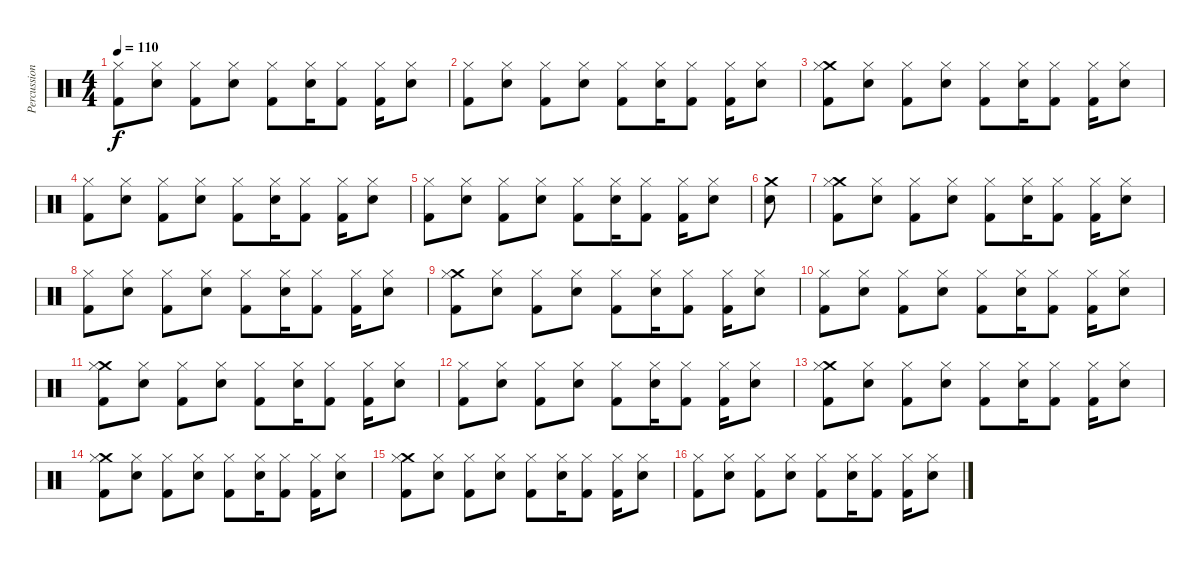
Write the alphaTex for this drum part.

\track ("Percussion" "Percussion") {instrument percussion}
\staff {score}
\articulation defaults
\ts (4 4)
\tempo 110
\clef neutral
\ks c
("Hi-Hat (closed)" "Kick (hit) 2").8{dy f} ("Hi-Hat (closed)" "Electric Snare (hit)").8 ("Hi-Hat (closed)" "Kick (hit) 2").8 ("Hi-Hat (closed)" "Electric Snare (hit)").8 ("Hi-Hat (closed)" "Kick (hit) 2").8 ("Hi-Hat (closed)" "Electric Snare (hit)").16 ("Hi-Hat (closed)" "Kick (hit) 2").8 ("Hi-Hat (closed)" "Kick (hit) 2").16 ("Hi-Hat (closed)" "Electric Snare (hit)").8 |
("Hi-Hat (closed)" "Kick (hit) 2").8 ("Hi-Hat (closed)" "Electric Snare (hit)").8 ("Hi-Hat (closed)" "Kick (hit) 2").8 ("Hi-Hat (closed)" "Electric Snare (hit)").8 ("Hi-Hat (closed)" "Kick (hit) 2").8 ("Hi-Hat (closed)" "Electric Snare (hit)").16 ("Hi-Hat (closed)" "Kick (hit) 2").8 ("Hi-Hat (closed)" "Kick (hit) 2").16 ("Hi-Hat (closed)" "Electric Snare (hit)").8 |
("Crash medium (hit)" "Hi-Hat (closed)" "Kick (hit) 2").8 ("Hi-Hat (closed)" "Electric Snare (hit)").8 ("Hi-Hat (closed)" "Kick (hit) 2").8 ("Hi-Hat (closed)" "Electric Snare (hit)").8 ("Hi-Hat (closed)" "Kick (hit) 2").8 ("Hi-Hat (closed)" "Electric Snare (hit)").16 ("Hi-Hat (closed)" "Kick (hit) 2").8 ("Hi-Hat (closed)" "Kick (hit) 2").16 ("Hi-Hat (closed)" "Electric Snare (hit)").8 |
("Hi-Hat (closed)" "Kick (hit) 2").8 ("Hi-Hat (closed)" "Electric Snare (hit)").8 ("Hi-Hat (closed)" "Kick (hit) 2").8 ("Hi-Hat (closed)" "Electric Snare (hit)").8 ("Hi-Hat (closed)" "Kick (hit) 2").8 ("Hi-Hat (closed)" "Electric Snare (hit)").16 ("Hi-Hat (closed)" "Kick (hit) 2").8 ("Hi-Hat (closed)" "Kick (hit) 2").16 ("Hi-Hat (closed)" "Electric Snare (hit)").8 |
("Hi-Hat (closed)" "Kick (hit) 2").8 ("Hi-Hat (closed)" "Electric Snare (hit)").8 ("Hi-Hat (closed)" "Kick (hit) 2").8 ("Hi-Hat (closed)" "Electric Snare (hit)").8 ("Hi-Hat (closed)" "Kick (hit) 2").8 ("Hi-Hat (closed)" "Electric Snare (hit)").16 ("Hi-Hat (closed)" "Kick (hit) 2").8 ("Hi-Hat (closed)" "Kick (hit) 2").16 ("Hi-Hat (closed)" "Electric Snare (hit)").8 |
("Crash medium (hit)" "Electric Snare (hit)").8 |
("Crash medium (hit)" "Hi-Hat (closed)" "Kick (hit) 2").8 ("Hi-Hat (closed)" "Electric Snare (hit)").8 ("Hi-Hat (closed)" "Kick (hit) 2").8 ("Hi-Hat (closed)" "Electric Snare (hit)").8 ("Hi-Hat (closed)" "Kick (hit) 2").8 ("Hi-Hat (closed)" "Electric Snare (hit)").16 ("Hi-Hat (closed)" "Kick (hit) 2").8 ("Hi-Hat (closed)" "Kick (hit) 2").16 ("Hi-Hat (closed)" "Electric Snare (hit)").8 |
("Hi-Hat (closed)" "Kick (hit) 2").8 ("Hi-Hat (closed)" "Electric Snare (hit)").8 ("Hi-Hat (closed)" "Kick (hit) 2").8 ("Hi-Hat (closed)" "Electric Snare (hit)").8 ("Hi-Hat (closed)" "Kick (hit) 2").8 ("Hi-Hat (closed)" "Electric Snare (hit)").16 ("Hi-Hat (closed)" "Kick (hit) 2").8 ("Hi-Hat (closed)" "Kick (hit) 2").16 ("Hi-Hat (closed)" "Electric Snare (hit)").8 |
("Crash medium (hit)" "Hi-Hat (closed)" "Kick (hit) 2").8 ("Hi-Hat (closed)" "Electric Snare (hit)").8 ("Hi-Hat (closed)" "Kick (hit) 2").8 ("Hi-Hat (closed)" "Electric Snare (hit)").8 ("Hi-Hat (closed)" "Kick (hit) 2").8 ("Hi-Hat (closed)" "Electric Snare (hit)").16 ("Hi-Hat (closed)" "Kick (hit) 2").8 ("Hi-Hat (closed)" "Kick (hit) 2").16 ("Hi-Hat (closed)" "Electric Snare (hit)").8 |
("Hi-Hat (closed)" "Kick (hit) 2").8 ("Hi-Hat (closed)" "Electric Snare (hit)").8 ("Hi-Hat (closed)" "Kick (hit) 2").8 ("Hi-Hat (closed)" "Electric Snare (hit)").8 ("Hi-Hat (closed)" "Kick (hit) 2").8 ("Hi-Hat (closed)" "Electric Snare (hit)").16 ("Hi-Hat (closed)" "Kick (hit) 2").8 ("Hi-Hat (closed)" "Kick (hit) 2").16 ("Hi-Hat (closed)" "Electric Snare (hit)").8 |
("Crash medium (hit)" "Hi-Hat (closed)" "Kick (hit) 2").8 ("Hi-Hat (closed)" "Electric Snare (hit)").8 ("Hi-Hat (closed)" "Kick (hit) 2").8 ("Hi-Hat (closed)" "Electric Snare (hit)").8 ("Hi-Hat (closed)" "Kick (hit) 2").8 ("Hi-Hat (closed)" "Electric Snare (hit)").16 ("Hi-Hat (closed)" "Kick (hit) 2").8 ("Hi-Hat (closed)" "Kick (hit) 2").16 ("Hi-Hat (closed)" "Electric Snare (hit)").8 |
("Hi-Hat (closed)" "Kick (hit) 2").8 ("Hi-Hat (closed)" "Electric Snare (hit)").8 ("Hi-Hat (closed)" "Kick (hit) 2").8 ("Hi-Hat (closed)" "Electric Snare (hit)").8 ("Hi-Hat (closed)" "Kick (hit) 2").8 ("Hi-Hat (closed)" "Electric Snare (hit)").16 ("Hi-Hat (closed)" "Kick (hit) 2").8 ("Hi-Hat (closed)" "Kick (hit) 2").16 ("Hi-Hat (closed)" "Electric Snare (hit)").8 |
("Crash medium (hit)" "Hi-Hat (closed)" "Kick (hit) 2").8 ("Hi-Hat (closed)" "Electric Snare (hit)").8 ("Hi-Hat (closed)" "Kick (hit) 2").8 ("Hi-Hat (closed)" "Electric Snare (hit)").8 ("Hi-Hat (closed)" "Kick (hit) 2").8 ("Hi-Hat (closed)" "Electric Snare (hit)").16 ("Hi-Hat (closed)" "Kick (hit) 2").8 ("Hi-Hat (closed)" "Kick (hit) 2").16 ("Hi-Hat (closed)" "Electric Snare (hit)").8 |
("Crash medium (hit)" "Hi-Hat (closed)" "Kick (hit) 2").8 ("Hi-Hat (closed)" "Electric Snare (hit)").8 ("Hi-Hat (closed)" "Kick (hit) 2").8 ("Hi-Hat (closed)" "Electric Snare (hit)").8 ("Hi-Hat (closed)" "Kick (hit) 2").8 ("Hi-Hat (closed)" "Electric Snare (hit)").16 ("Hi-Hat (closed)" "Kick (hit) 2").8 ("Hi-Hat (closed)" "Kick (hit) 2").16 ("Hi-Hat (closed)" "Electric Snare (hit)").8 |
("Crash medium (hit)" "Hi-Hat (closed)" "Kick (hit) 2").8 ("Hi-Hat (closed)" "Electric Snare (hit)").8 ("Hi-Hat (closed)" "Kick (hit) 2").8 ("Hi-Hat (closed)" "Electric Snare (hit)").8 ("Hi-Hat (closed)" "Kick (hit) 2").8 ("Hi-Hat (closed)" "Electric Snare (hit)").16 ("Hi-Hat (closed)" "Kick (hit) 2").8 ("Hi-Hat (closed)" "Kick (hit) 2").16 ("Hi-Hat (closed)" "Electric Snare (hit)").8 |
("Hi-Hat (closed)" "Kick (hit) 2").8 ("Hi-Hat (closed)" "Electric Snare (hit)").8 ("Hi-Hat (closed)" "Kick (hit) 2").8 ("Hi-Hat (closed)" "Electric Snare (hit)").8 ("Hi-Hat (closed)" "Kick (hit) 2").8 ("Hi-Hat (closed)" "Electric Snare (hit)").16 ("Hi-Hat (closed)" "Kick (hit) 2").8 ("Hi-Hat (closed)" "Kick (hit) 2").16 ("Hi-Hat (closed)" "Electric Snare (hit)").8
